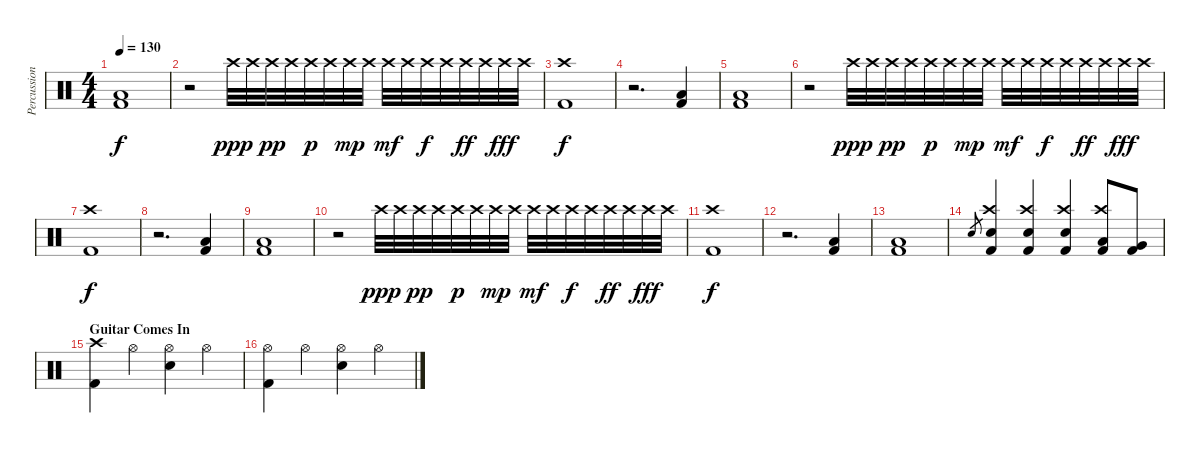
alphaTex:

\track ("Percussion" "Percussion") {instrument percussion}
\staff {score}
\articulation defaults
\ts (4 4)
\tempo 130
\clef neutral
\ks c
("Low Floor Tom (hit)" "Kick (hit) 2").1{dy f} |
r.2 "Crash high (hit)".32{dy ppp} "Crash high (hit)".32 "Crash high (hit)".32{dy pp} "Crash high (hit)".32 "Crash high (hit)".32{dy p} "Crash high (hit)".32 "Crash high (hit)".32{dy mp} "Crash high (hit)".32 "Crash high (hit)".32{dy mf} "Crash high (hit)".32 "Crash high (hit)".32{dy f} "Crash high (hit)".32 "Crash high (hit)".32{dy ff} "Crash high (hit)".32 "Crash high (hit)".32{dy fff} "Crash high (hit)".32 |
("Crash high (hit)" "Kick (hit) 2").1{dy f} |
r.2{d} ("Low Floor Tom (hit)" "Kick (hit) 2").4 |
("Low Floor Tom (hit)" "Kick (hit) 2").1 |
r.2 "Crash high (hit)".32{dy ppp} "Crash high (hit)".32 "Crash high (hit)".32{dy pp} "Crash high (hit)".32 "Crash high (hit)".32{dy p} "Crash high (hit)".32 "Crash high (hit)".32{dy mp} "Crash high (hit)".32 "Crash high (hit)".32{dy mf} "Crash high (hit)".32 "Crash high (hit)".32{dy f} "Crash high (hit)".32 "Crash high (hit)".32{dy ff} "Crash high (hit)".32 "Crash high (hit)".32{dy fff} "Crash high (hit)".32 |
("Crash high (hit)" "Kick (hit) 2").1{dy f} |
r.2{d} ("Low Floor Tom (hit)" "Kick (hit) 2").4 |
("Low Floor Tom (hit)" "Kick (hit) 2").1 |
r.2 "Crash high (hit)".32{dy ppp} "Crash high (hit)".32 "Crash high (hit)".32{dy pp} "Crash high (hit)".32 "Crash high (hit)".32{dy p} "Crash high (hit)".32 "Crash high (hit)".32{dy mp} "Crash high (hit)".32 "Crash high (hit)".32{dy mf} "Crash high (hit)".32 "Crash high (hit)".32{dy f} "Crash high (hit)".32 "Crash high (hit)".32{dy ff} "Crash high (hit)".32 "Crash high (hit)".32{dy fff} "Crash high (hit)".32 |
("Crash high (hit)" "Kick (hit) 2").1{dy f} |
r.2{d} ("Low Floor Tom (hit)" "Kick (hit) 2").4 |
("Low Floor Tom (hit)" "Kick (hit) 2").1 |
"Snare (hit) 2".8{gr} ("Crash high (hit)" "Snare (hit) 2" "Kick (hit) 2").4 ("Crash high (hit)" "Snare (hit) 2" "Kick (hit) 2").4 ("Crash high (hit)" "Snare (hit) 2" "Kick (hit) 2").4 ("Crash high (hit)" "Low Tom (hit)" "Kick (hit) 2").8 ("Very Low Tom (hit)" "Kick (hit) 2").8 |
\section ("" "Guitar Comes In")
("Crash high (hit)" "Kick (hit) 2").4 "Hi-Hat (open)".4 ("Hi-Hat (open)" "Snare (hit) 2").4 "Hi-Hat (open)".4 |
("Hi-Hat (open)" "Kick (hit) 2").4 "Hi-Hat (open)".4 ("Hi-Hat (open)" "Snare (hit) 2").4 "Hi-Hat (open)".4
